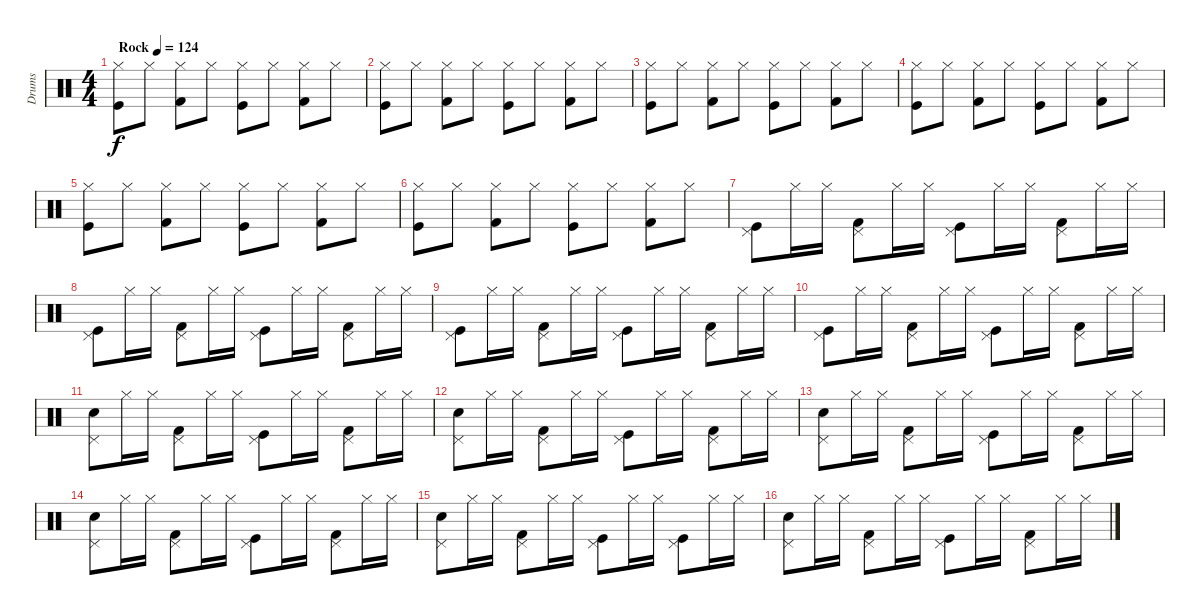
\track ("Drums" "Drums") {instrument percussion}
\staff {score}
\articulation defaults
\ts (4 4)
\tempo (124 "Rock")
\clef neutral
\ks c
("Hi-Hat (closed)" "Kick (hit)").8{dy f} "Hi-Hat (closed)".8 ("Hi-Hat (closed)" "Kick (hit) 2").8 "Hi-Hat (closed)".8 ("Hi-Hat (closed)" "Kick (hit)").8 "Hi-Hat (closed)".8 ("Hi-Hat (closed)" "Kick (hit) 2").8 "Hi-Hat (closed)".8 |
("Hi-Hat (closed)" "Kick (hit)").8 "Hi-Hat (closed)".8 ("Hi-Hat (closed)" "Kick (hit) 2").8 "Hi-Hat (closed)".8 ("Hi-Hat (closed)" "Kick (hit)").8 "Hi-Hat (closed)".8 ("Hi-Hat (closed)" "Kick (hit) 2").8 "Hi-Hat (closed)".8 |
("Hi-Hat (closed)" "Kick (hit)").8 "Hi-Hat (closed)".8 ("Hi-Hat (closed)" "Kick (hit) 2").8 "Hi-Hat (closed)".8 ("Hi-Hat (closed)" "Kick (hit)").8 "Hi-Hat (closed)".8 ("Hi-Hat (closed)" "Kick (hit) 2").8 "Hi-Hat (closed)".8 |
("Hi-Hat (closed)" "Kick (hit)").8 "Hi-Hat (closed)".8 ("Hi-Hat (closed)" "Kick (hit) 2").8 "Hi-Hat (closed)".8 ("Hi-Hat (closed)" "Kick (hit)").8 "Hi-Hat (closed)".8 ("Hi-Hat (closed)" "Kick (hit) 2").8 "Hi-Hat (closed)".8 |
("Hi-Hat (closed)" "Kick (hit)").8 "Hi-Hat (closed)".8 ("Hi-Hat (closed)" "Kick (hit) 2").8 "Hi-Hat (closed)".8 ("Hi-Hat (closed)" "Kick (hit)").8 "Hi-Hat (closed)".8 ("Hi-Hat (closed)" "Kick (hit) 2").8 "Hi-Hat (closed)".8 |
("Hi-Hat (closed)" "Kick (hit)").8 "Hi-Hat (closed)".8 ("Hi-Hat (closed)" "Kick (hit) 2").8 "Hi-Hat (closed)".8 ("Hi-Hat (closed)" "Kick (hit)").8 "Hi-Hat (closed)".8 ("Hi-Hat (closed)" "Kick (hit) 2").8 "Hi-Hat (closed)".8 |
("Pedal Hi-Hat (hit)" "Kick (hit)").8 "Hi-Hat (closed)".16 "Hi-Hat (closed)".16 ("Pedal Hi-Hat (hit)" "Kick (hit) 2").8 "Hi-Hat (closed)".16 "Hi-Hat (closed)".16 ("Pedal Hi-Hat (hit)" "Kick (hit)").8 "Hi-Hat (closed)".16 "Hi-Hat (closed)".16 ("Pedal Hi-Hat (hit)" "Kick (hit) 2").8 "Hi-Hat (closed)".16 "Hi-Hat (closed)".16 |
("Pedal Hi-Hat (hit)" "Kick (hit)").8 "Hi-Hat (closed)".16 "Hi-Hat (closed)".16 ("Pedal Hi-Hat (hit)" "Kick (hit) 2").8 "Hi-Hat (closed)".16 "Hi-Hat (closed)".16 ("Pedal Hi-Hat (hit)" "Kick (hit)").8 "Hi-Hat (closed)".16 "Hi-Hat (closed)".16 ("Pedal Hi-Hat (hit)" "Kick (hit) 2").8 "Hi-Hat (closed)".16 "Hi-Hat (closed)".16 |
("Pedal Hi-Hat (hit)" "Kick (hit)").8 "Hi-Hat (closed)".16 "Hi-Hat (closed)".16 ("Pedal Hi-Hat (hit)" "Kick (hit) 2").8 "Hi-Hat (closed)".16 "Hi-Hat (closed)".16 ("Pedal Hi-Hat (hit)" "Kick (hit)").8 "Hi-Hat (closed)".16 "Hi-Hat (closed)".16 ("Pedal Hi-Hat (hit)" "Kick (hit) 2").8 "Hi-Hat (closed)".16 "Hi-Hat (closed)".16 |
("Pedal Hi-Hat (hit)" "Kick (hit)").8 "Hi-Hat (closed)".16 "Hi-Hat (closed)".16 ("Pedal Hi-Hat (hit)" "Kick (hit) 2").8 "Hi-Hat (closed)".16 "Hi-Hat (closed)".16 ("Pedal Hi-Hat (hit)" "Kick (hit)").8 "Hi-Hat (closed)".16 "Hi-Hat (closed)".16 ("Pedal Hi-Hat (hit)" "Kick (hit) 2").8 "Hi-Hat (closed)".16 "Hi-Hat (closed)".16 |
("Pedal Hi-Hat (hit)" "Snare (hit) 2").8 "Hi-Hat (closed)".16 "Hi-Hat (closed)".16 ("Pedal Hi-Hat (hit)" "Kick (hit) 2").8 "Hi-Hat (closed)".16 "Hi-Hat (closed)".16 ("Pedal Hi-Hat (hit)" "Kick (hit)").8 "Hi-Hat (closed)".16 "Hi-Hat (closed)".16 ("Pedal Hi-Hat (hit)" "Kick (hit) 2").8 "Hi-Hat (closed)".16 "Hi-Hat (closed)".16 |
("Pedal Hi-Hat (hit)" "Snare (hit) 2").8 "Hi-Hat (closed)".16 "Hi-Hat (closed)".16 ("Pedal Hi-Hat (hit)" "Kick (hit) 2").8 "Hi-Hat (closed)".16 "Hi-Hat (closed)".16 ("Pedal Hi-Hat (hit)" "Kick (hit)").8 "Hi-Hat (closed)".16 "Hi-Hat (closed)".16 ("Pedal Hi-Hat (hit)" "Kick (hit) 2").8 "Hi-Hat (closed)".16 "Hi-Hat (closed)".16 |
("Pedal Hi-Hat (hit)" "Snare (hit) 2").8 "Hi-Hat (closed)".16 "Hi-Hat (closed)".16 ("Pedal Hi-Hat (hit)" "Kick (hit) 2").8 "Hi-Hat (closed)".16 "Hi-Hat (closed)".16 ("Pedal Hi-Hat (hit)" "Kick (hit)").8 "Hi-Hat (closed)".16 "Hi-Hat (closed)".16 ("Pedal Hi-Hat (hit)" "Kick (hit) 2").8 "Hi-Hat (closed)".16 "Hi-Hat (closed)".16 |
("Pedal Hi-Hat (hit)" "Snare (hit) 2").8 "Hi-Hat (closed)".16 "Hi-Hat (closed)".16 ("Pedal Hi-Hat (hit)" "Kick (hit) 2").8 "Hi-Hat (closed)".16 "Hi-Hat (closed)".16 ("Pedal Hi-Hat (hit)" "Kick (hit)").8 "Hi-Hat (closed)".16 "Hi-Hat (closed)".16 ("Pedal Hi-Hat (hit)" "Kick (hit) 2").8 "Hi-Hat (closed)".16 "Hi-Hat (closed)".16 |
("Pedal Hi-Hat (hit)" "Snare (hit) 2").8 "Hi-Hat (closed)".16 "Hi-Hat (closed)".16 ("Pedal Hi-Hat (hit)" "Kick (hit) 2").8 "Hi-Hat (closed)".16 "Hi-Hat (closed)".16 ("Pedal Hi-Hat (hit)" "Kick (hit)").8 "Hi-Hat (closed)".16 "Hi-Hat (closed)".16 ("Pedal Hi-Hat (hit)" "Kick (hit)").8 "Hi-Hat (closed)".16 "Hi-Hat (closed)".16 |
("Pedal Hi-Hat (hit)" "Snare (hit) 2").8 "Hi-Hat (closed)".16 "Hi-Hat (closed)".16 ("Pedal Hi-Hat (hit)" "Kick (hit) 2").8 "Hi-Hat (closed)".16 "Hi-Hat (closed)".16 ("Pedal Hi-Hat (hit)" "Kick (hit)").8 "Hi-Hat (closed)".16 "Hi-Hat (closed)".16 ("Pedal Hi-Hat (hit)" "Kick (hit) 2").8 "Hi-Hat (closed)".16 "Hi-Hat (closed)".16
